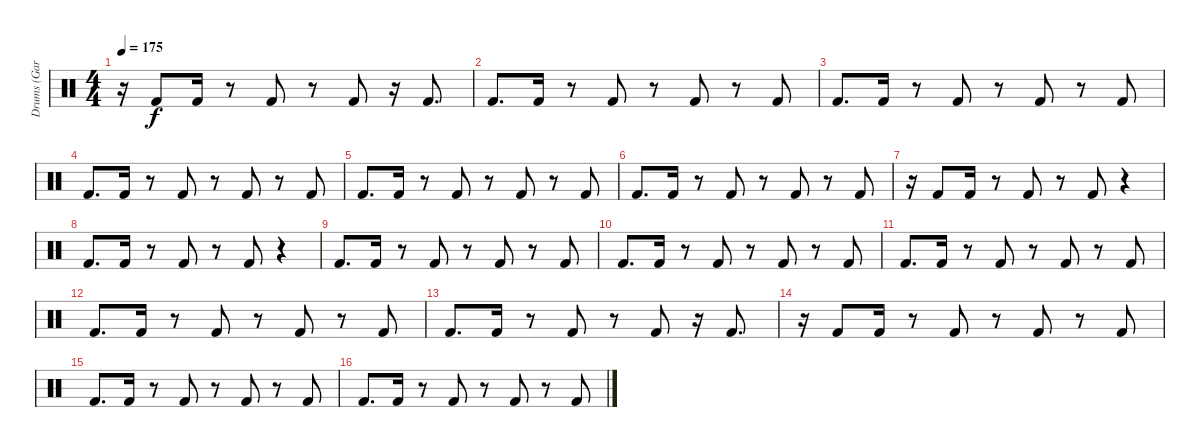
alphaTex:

\track ("Drums (Gar Samuelson)" "Drums (Gar") {instrument percussion}
\staff {score}
\articulation defaults
\ts (4 4)
\tempo 175
\clef neutral
\ks c
r.16{dy f} "Kick (hit) 2".8 "Kick (hit) 2".16 r.8 "Kick (hit) 2".8 r.8 "Kick (hit) 2".8 r.16 "Kick (hit) 2".8{d} |
"Kick (hit) 2".8{d} "Kick (hit) 2".16 r.8 "Kick (hit) 2".8 r.8 "Kick (hit) 2".8 r.8 "Kick (hit) 2".8 |
"Kick (hit) 2".8{d} "Kick (hit) 2".16 r.8 "Kick (hit) 2".8 r.8 "Kick (hit) 2".8 r.8 "Kick (hit) 2".8 |
"Kick (hit) 2".8{d} "Kick (hit) 2".16 r.8 "Kick (hit) 2".8 r.8 "Kick (hit) 2".8 r.8 "Kick (hit) 2".8 |
"Kick (hit) 2".8{d} "Kick (hit) 2".16 r.8 "Kick (hit) 2".8 r.8 "Kick (hit) 2".8 r.8 "Kick (hit) 2".8 |
"Kick (hit) 2".8{d} "Kick (hit) 2".16 r.8 "Kick (hit) 2".8 r.8 "Kick (hit) 2".8 r.8 "Kick (hit) 2".8 |
r.16 "Kick (hit) 2".8 "Kick (hit) 2".16 r.8 "Kick (hit) 2".8 r.8 "Kick (hit) 2".8 r.4 |
"Kick (hit) 2".8{d} "Kick (hit) 2".16 r.8 "Kick (hit) 2".8 r.8 "Kick (hit) 2".8 r.4 |
"Kick (hit) 2".8{d} "Kick (hit) 2".16 r.8 "Kick (hit) 2".8 r.8 "Kick (hit) 2".8 r.8 "Kick (hit) 2".8 |
"Kick (hit) 2".8{d} "Kick (hit) 2".16 r.8 "Kick (hit) 2".8 r.8 "Kick (hit) 2".8 r.8 "Kick (hit) 2".8 |
"Kick (hit) 2".8{d} "Kick (hit) 2".16 r.8 "Kick (hit) 2".8 r.8 "Kick (hit) 2".8 r.8 "Kick (hit) 2".8 |
"Kick (hit) 2".8{d} "Kick (hit) 2".16 r.8 "Kick (hit) 2".8 r.8 "Kick (hit) 2".8 r.8 "Kick (hit) 2".8 |
"Kick (hit) 2".8{d} "Kick (hit) 2".16 r.8 "Kick (hit) 2".8 r.8 "Kick (hit) 2".8 r.16 "Kick (hit) 2".8{d} |
r.16 "Kick (hit) 2".8 "Kick (hit) 2".16 r.8 "Kick (hit) 2".8 r.8 "Kick (hit) 2".8 r.8 "Kick (hit) 2".8 |
"Kick (hit) 2".8{d} "Kick (hit) 2".16 r.8 "Kick (hit) 2".8 r.8 "Kick (hit) 2".8 r.8 "Kick (hit) 2".8 |
"Kick (hit) 2".8{d} "Kick (hit) 2".16 r.8 "Kick (hit) 2".8 r.8 "Kick (hit) 2".8 r.8 "Kick (hit) 2".8
